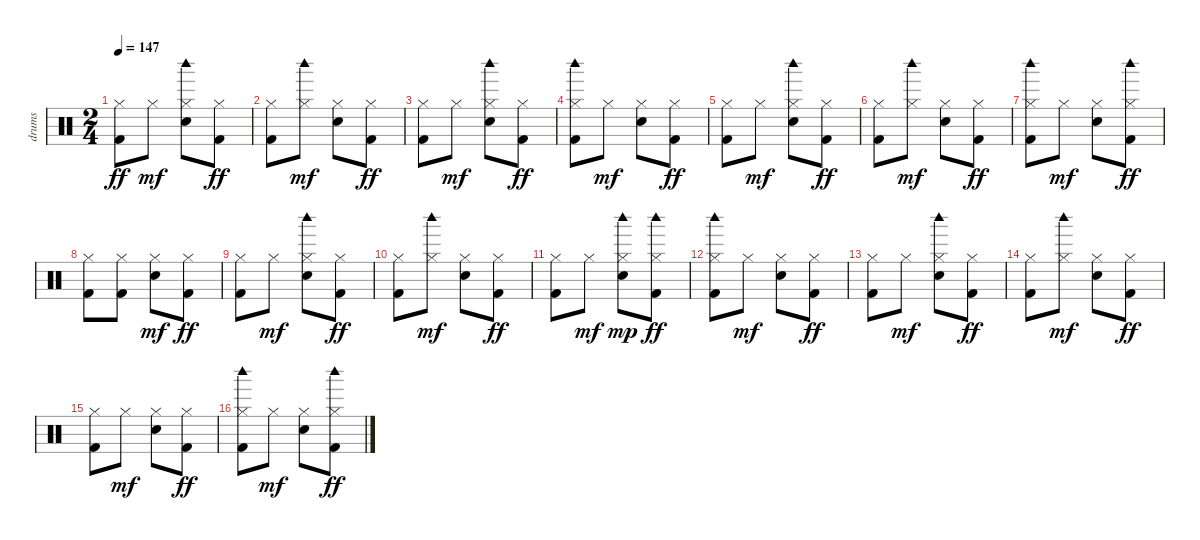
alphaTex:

\track ("drums" "drums") {instrument percussion}
\staff {score}
\articulation defaults
\ts (2 4)
\tempo 147
\clef neutral
\ks c
("Hi-Hat (closed)" "Kick (hit) 2").8{dy ff} "Hi-Hat (closed)".8{dy mf} ("Hi-Hat (closed)" "Woodblock high (hit)" "Electric Snare (hit)").8 ("Hi-Hat (closed)" "Kick (hit) 2").8{dy ff} |
("Hi-Hat (closed)" "Kick (hit) 2").8 ("Hi-Hat (closed)" "Woodblock high (hit)").8{dy mf} ("Hi-Hat (closed)" "Electric Snare (hit)").8 ("Hi-Hat (closed)" "Kick (hit) 2").8{dy ff} |
("Hi-Hat (closed)" "Kick (hit) 2").8 "Hi-Hat (closed)".8{dy mf} ("Hi-Hat (closed)" "Woodblock high (hit)" "Electric Snare (hit)").8 ("Hi-Hat (closed)" "Kick (hit) 2").8{dy ff} |
("Hi-Hat (closed)" "Woodblock high (hit)" "Kick (hit) 2").8 "Hi-Hat (closed)".8{dy mf} ("Hi-Hat (closed)" "Electric Snare (hit)").8 ("Hi-Hat (closed)" "Kick (hit) 2").8{dy ff} |
("Hi-Hat (closed)" "Kick (hit) 2").8 "Hi-Hat (closed)".8{dy mf} ("Hi-Hat (closed)" "Woodblock high (hit)" "Electric Snare (hit)").8 ("Hi-Hat (closed)" "Kick (hit) 2").8{dy ff} |
("Hi-Hat (closed)" "Kick (hit) 2").8 ("Hi-Hat (closed)" "Woodblock high (hit)").8{dy mf} ("Hi-Hat (closed)" "Electric Snare (hit)").8 ("Hi-Hat (closed)" "Kick (hit) 2").8{dy ff} |
("Hi-Hat (closed)" "Woodblock high (hit)" "Kick (hit) 2").8 "Hi-Hat (closed)".8{dy mf} ("Hi-Hat (closed)" "Electric Snare (hit)").8 ("Hi-Hat (closed)" "Woodblock high (hit)" "Kick (hit) 2").8{dy ff} |
("Hi-Hat (closed)" "Kick (hit) 2").8 ("Hi-Hat (closed)" "Kick (hit) 2").8 ("Hi-Hat (closed)" "Electric Snare (hit)").8{dy mf} ("Hi-Hat (closed)" "Kick (hit) 2").8{dy ff} |
("Hi-Hat (closed)" "Kick (hit) 2").8 "Hi-Hat (closed)".8{dy mf} ("Hi-Hat (closed)" "Woodblock high (hit)" "Electric Snare (hit)").8 ("Hi-Hat (closed)" "Kick (hit) 2").8{dy ff} |
("Hi-Hat (closed)" "Kick (hit) 2").8 ("Hi-Hat (closed)" "Woodblock high (hit)").8{dy mf} ("Hi-Hat (closed)" "Electric Snare (hit)").8 ("Hi-Hat (closed)" "Kick (hit) 2").8{dy ff} |
("Hi-Hat (closed)" "Kick (hit) 2").8 "Hi-Hat (closed)".8{dy mf} ("Hi-Hat (closed)" "Woodblock high (hit)" "Electric Snare (hit)").8{dy mp} ("Hi-Hat (closed)" "Woodblock high (hit)" "Kick (hit) 2").8{dy ff} |
("Hi-Hat (closed)" "Woodblock high (hit)" "Kick (hit) 2").8 "Hi-Hat (closed)".8{dy mf} ("Hi-Hat (closed)" "Electric Snare (hit)").8 ("Hi-Hat (closed)" "Kick (hit) 2").8{dy ff} |
("Hi-Hat (closed)" "Kick (hit) 2").8 "Hi-Hat (closed)".8{dy mf} ("Hi-Hat (closed)" "Woodblock high (hit)" "Electric Snare (hit)").8 ("Hi-Hat (closed)" "Kick (hit) 2").8{dy ff} |
("Hi-Hat (closed)" "Kick (hit) 2").8 ("Hi-Hat (closed)" "Woodblock high (hit)").8{dy mf} ("Hi-Hat (closed)" "Electric Snare (hit)").8 ("Hi-Hat (closed)" "Kick (hit) 2").8{dy ff} |
("Hi-Hat (closed)" "Kick (hit) 2").8 "Hi-Hat (closed)".8{dy mf} ("Hi-Hat (closed)" "Electric Snare (hit)").8 ("Hi-Hat (closed)" "Kick (hit) 2").8{dy ff} |
("Hi-Hat (closed)" "Woodblock high (hit)" "Kick (hit) 2").8 "Hi-Hat (closed)".8{dy mf} ("Hi-Hat (closed)" "Electric Snare (hit)").8 ("Hi-Hat (closed)" "Woodblock high (hit)" "Kick (hit) 2").8{dy ff}
